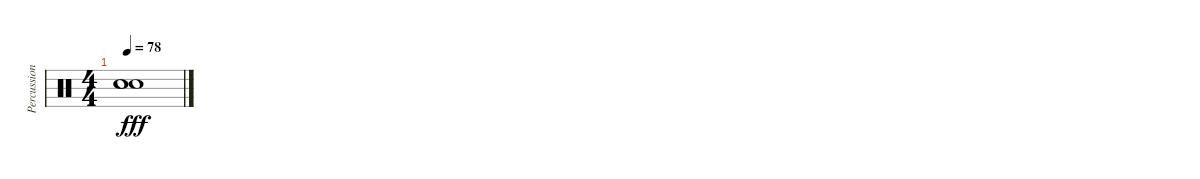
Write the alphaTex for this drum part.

\track ("Percussion" "Percussion") {instrument percussion}
\staff {score}
\articulation defaults
\ts (4 4)
\tempo 78
\clef neutral
\ks c
("Snare (hit)"{t} "Snare (hit)"{t} "Snare (hit)"{t}).1{dy fff}
